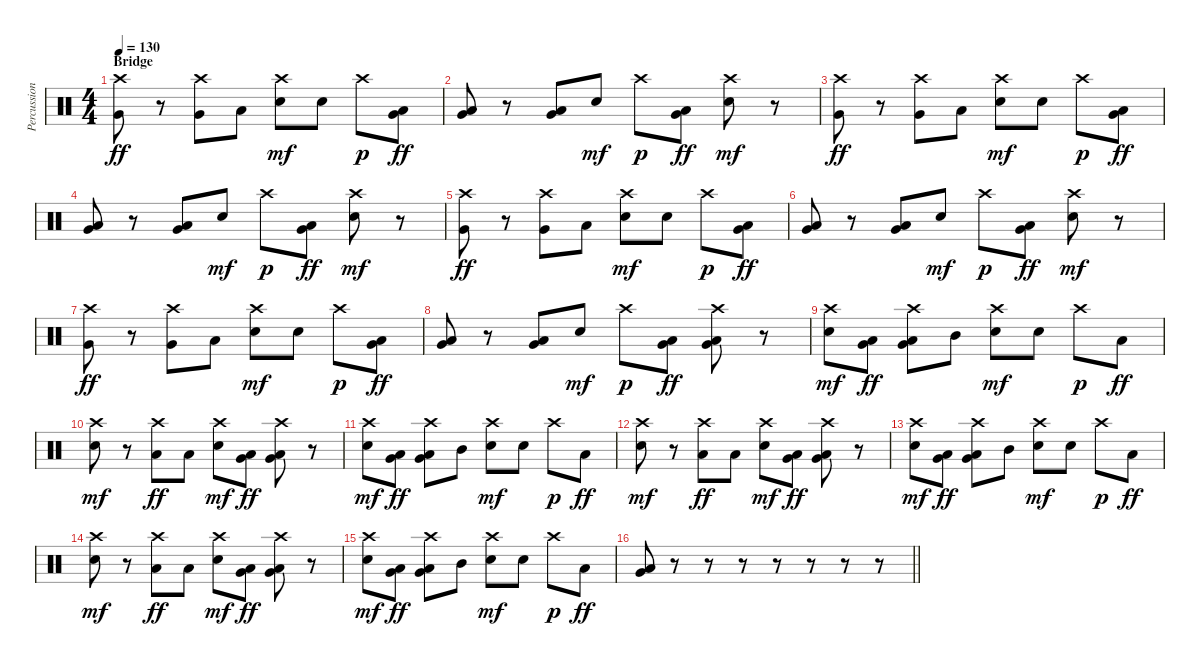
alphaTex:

\track ("Percussions (Roger Vasquez)" "Percussion") {instrument percussion}
\staff {score}
\articulation defaults
\ts (4 4)
\section ("" "Bridge")
\tempo 130
\clef neutral
\ks c
("Crash high (hit)" "Very Low Tom (hit)").8{dy ff} r.8 ("Crash high (hit)" "Very Low Tom (hit)").8 "Low Tom (hit)".8 ("Crash high (hit)" "Snare (hit) 2").8{dy mf} "Snare (hit) 2".8 "Crash high (hit)".8{dy p} ("Low Tom (hit)" "Very Low Tom (hit)").8{dy ff} |
("Low Tom (hit)" "Very Low Tom (hit)").8 r.8 ("Low Tom (hit)" "Very Low Tom (hit)").8 "Snare (hit) 2".8{dy mf} "Crash high (hit)".8{dy p} ("Low Tom (hit)" "Very Low Tom (hit)").8{dy ff} ("Crash high (hit)" "Snare (hit) 2").8{dy mf} r.8 |
("Crash high (hit)" "Very Low Tom (hit)").8{dy ff} r.8 ("Crash high (hit)" "Very Low Tom (hit)").8 "Low Tom (hit)".8 ("Crash high (hit)" "Snare (hit) 2").8{dy mf} "Snare (hit) 2".8 "Crash high (hit)".8{dy p} ("Low Tom (hit)" "Very Low Tom (hit)").8{dy ff} |
("Low Tom (hit)" "Very Low Tom (hit)").8 r.8 ("Low Tom (hit)" "Very Low Tom (hit)").8 "Snare (hit) 2".8{dy mf} "Crash high (hit)".8{dy p} ("Low Tom (hit)" "Very Low Tom (hit)").8{dy ff} ("Crash high (hit)" "Snare (hit) 2").8{dy mf} r.8 |
("Crash high (hit)" "Very Low Tom (hit)").8{dy ff} r.8 ("Crash high (hit)" "Very Low Tom (hit)").8 "Low Tom (hit)".8 ("Crash high (hit)" "Snare (hit) 2").8{dy mf} "Snare (hit) 2".8 "Crash high (hit)".8{dy p} ("Low Tom (hit)" "Very Low Tom (hit)").8{dy ff} |
("Low Tom (hit)" "Very Low Tom (hit)").8 r.8 ("Low Tom (hit)" "Very Low Tom (hit)").8 "Snare (hit) 2".8{dy mf} "Crash high (hit)".8{dy p} ("Low Tom (hit)" "Very Low Tom (hit)").8{dy ff} ("Crash high (hit)" "Snare (hit) 2").8{dy mf} r.8 |
("Crash high (hit)" "Very Low Tom (hit)").8{dy ff} r.8 ("Crash high (hit)" "Very Low Tom (hit)").8 "Low Tom (hit)".8 ("Crash high (hit)" "Snare (hit) 2").8{dy mf} "Snare (hit) 2".8 "Crash high (hit)".8{dy p} ("Low Tom (hit)" "Very Low Tom (hit)").8{dy ff} |
("Low Tom (hit)" "Very Low Tom (hit)").8 r.8 ("Low Tom (hit)" "Very Low Tom (hit)").8 "Snare (hit) 2".8{dy mf} "Crash high (hit)".8{dy p} ("Low Tom (hit)" "Very Low Tom (hit)").8{dy ff} ("Crash high (hit)" "Low Tom (hit)" "Very Low Tom (hit)").8 r.8 |
("Crash high (hit)" "Snare (hit) 2").8{dy mf} ("Low Tom (hit)" "Very Low Tom (hit)").8{dy ff} ("Crash high (hit)" "Low Tom (hit)" "Very Low Tom (hit)").8 "Mid Tom (hit)".8 ("Crash high (hit)" "Snare (hit) 2").8{dy mf} "Snare (hit) 2".8 "Crash high (hit)".8{dy p} "Low Tom (hit)".8{dy ff} |
("Crash high (hit)" "Snare (hit) 2").8{dy mf} r.8 ("Crash high (hit)" "Low Tom (hit)").8{dy ff} "Low Tom (hit)".8 ("Crash high (hit)" "Snare (hit) 2").8{dy mf} ("Low Tom (hit)" "Very Low Tom (hit)").8{dy ff} ("Crash high (hit)" "Very Low Tom (hit)" "Low Floor Tom (hit)").8 r.8 |
("Crash high (hit)" "Snare (hit) 2").8{dy mf} ("Low Tom (hit)" "Very Low Tom (hit)").8{dy ff} ("Crash high (hit)" "Low Tom (hit)" "Very Low Tom (hit)").8 "Mid Tom (hit)".8 ("Crash high (hit)" "Snare (hit) 2").8{dy mf} "Snare (hit) 2".8 "Crash high (hit)".8{dy p} "Low Tom (hit)".8{dy ff} |
("Crash high (hit)" "Snare (hit) 2").8{dy mf} r.8 ("Crash high (hit)" "Low Tom (hit)").8{dy ff} "Low Tom (hit)".8 ("Crash high (hit)" "Snare (hit) 2").8{dy mf} ("Low Tom (hit)" "Very Low Tom (hit)").8{dy ff} ("Crash high (hit)" "Very Low Tom (hit)" "Low Floor Tom (hit)").8 r.8 |
("Crash high (hit)" "Snare (hit) 2").8{dy mf} ("Low Tom (hit)" "Very Low Tom (hit)").8{dy ff} ("Crash high (hit)" "Low Tom (hit)" "Very Low Tom (hit)").8 "Mid Tom (hit)".8 ("Crash high (hit)" "Snare (hit) 2").8{dy mf} "Snare (hit) 2".8 "Crash high (hit)".8{dy p} "Low Tom (hit)".8{dy ff} |
("Crash high (hit)" "Snare (hit) 2").8{dy mf} r.8 ("Crash high (hit)" "Low Tom (hit)").8{dy ff} "Low Tom (hit)".8 ("Crash high (hit)" "Snare (hit) 2").8{dy mf} ("Low Tom (hit)" "Very Low Tom (hit)").8{dy ff} ("Crash high (hit)" "Very Low Tom (hit)" "Low Floor Tom (hit)").8 r.8 |
("Crash high (hit)" "Snare (hit) 2").8{dy mf} ("Low Tom (hit)" "Very Low Tom (hit)").8{dy ff} ("Crash high (hit)" "Low Tom (hit)" "Very Low Tom (hit)").8 "Mid Tom (hit)".8 ("Crash high (hit)" "Snare (hit) 2").8{dy mf} "Snare (hit) 2".8 "Crash high (hit)".8{dy p} "Low Tom (hit)".8{dy ff} |
\barLineRight lightlight
("Low Tom (hit)" "Very Low Tom (hit)").8 r.8 r.8 r.8 r.8 r.8 r.8 r.8
